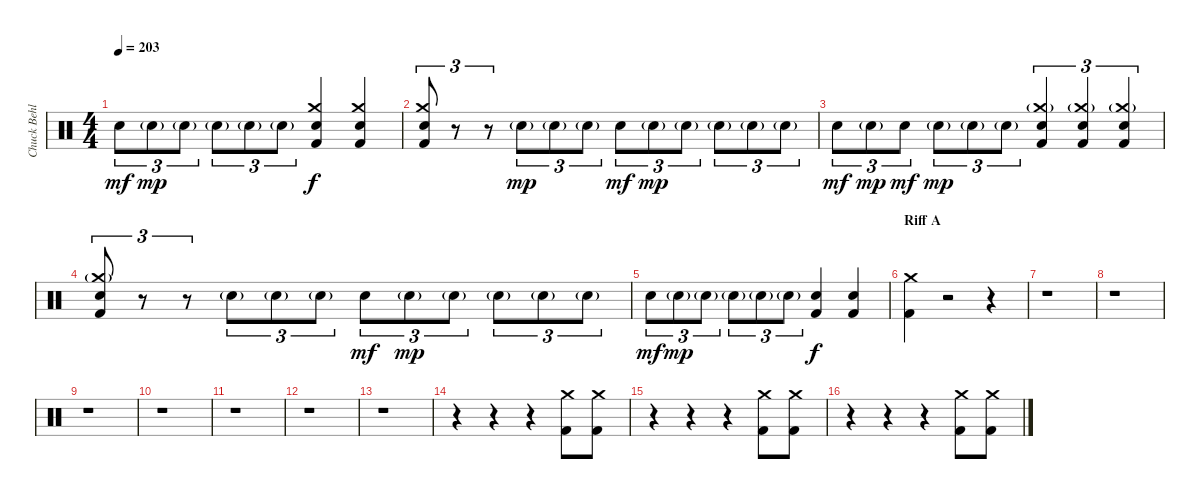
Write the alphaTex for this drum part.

\track ("Chuck Behler" "Chuck Behl") {instrument percussion}
\staff {score}
\articulation defaults
\ts (4 4)
\tempo 203
\clef neutral
\ks c "Snare (hit) 2".8{tu (3 2) dy mf} "Snare (hit) 2"{g}.8{tu (3 2) dy mp} "Snare (hit) 2"{g}.8{tu (3 2)} "Snare (hit) 2"{g}.8{tu (3 2)} "Snare (hit) 2"{g}.8{tu (3 2)} "Snare (hit) 2"{g}.8{tu (3 2)}
("Crash medium (hit)" "Snare (hit) 2" "Kick (hit) 2").4{dy f} ("Crash medium (hit)" "Snare (hit) 2" "Kick (hit) 2").4 |
("Crash medium (hit)" "Snare (hit) 2" "Kick (hit) 2").8{tu (3 2)} r.8{tu (3 2)} r.8{tu (3 2)} "Snare (hit) 2"{g}.8{tu (3 2) dy mp} "Snare (hit) 2"{g}.8{tu (3 2)} "Snare (hit) 2"{g}.8{tu (3 2)} "Snare (hit) 2".8{tu (3 2) dy mf} "Snare (hit) 2"{g}.8{tu (3 2) dy mp} "Snare (hit) 2"{g}.8{tu (3 2)} "Snare (hit) 2"{g}.8{tu (3 2)} "Snare (hit) 2"{g}.8{tu (3 2)} "Snare (hit) 2"{g}.8{tu (3 2)} |
"Snare (hit) 2".8{tu (3 2) dy mf} "Snare (hit) 2"{g}.8{tu (3 2) dy mp} "Snare (hit) 2".8{tu (3 2) dy mf} "Snare (hit) 2"{g}.8{tu (3 2) dy mp} "Snare (hit) 2"{g}.8{tu (3 2)} "Snare (hit) 2"{g}.8{tu (3 2)} ("Crash medium (hit)"{g} "Snare (hit) 2" "Kick (hit) 2").4{tu (3 2)} ("Crash medium (hit)"{g} "Snare (hit) 2" "Kick (hit) 2").4{tu (3 2)} ("Crash medium (hit)"{g} "Snare (hit) 2" "Kick (hit) 2").4{tu (3 2)} |
("Crash medium (hit)"{g} "Snare (hit) 2" "Kick (hit) 2").8{tu (3 2)} r.8{tu (3 2)} r.8{tu (3 2)} "Snare (hit) 2"{g}.8{tu (3 2)} "Snare (hit) 2"{g}.8{tu (3 2)} "Snare (hit) 2"{g}.8{tu (3 2)} "Snare (hit) 2".8{tu (3 2) dy mf} "Snare (hit) 2"{g}.8{tu (3 2) dy mp} "Snare (hit) 2"{g}.8{tu (3 2)} "Snare (hit) 2"{g}.8{tu (3 2)} "Snare (hit) 2"{g}.8{tu (3 2)} "Snare (hit) 2"{g}.8{tu (3 2)} |
"Snare (hit) 2".8{tu (3 2) dy mf} "Snare (hit) 2"{g}.8{tu (3 2) dy mp} "Snare (hit) 2"{g}.8{tu (3 2)} "Snare (hit) 2"{g}.8{tu (3 2)} "Snare (hit) 2"{g}.8{tu (3 2)} "Snare (hit) 2"{g}.8{tu (3 2)} ("Snare (hit) 2" "Kick (hit) 2").4{dy f} ("Snare (hit) 2" "Kick (hit) 2").4 |
\section ("" "Riff A")
("Crash medium (hit)" "Kick (hit) 2").4{volume 0} r.2 r.4 |
r.1 |
r.1 |
r.1 |
r.1 |
r.1 |
r.1 |
r.1 |
r.4{volume 16} r.4 r.4 ("Crash medium (hit)" "Kick (hit) 2").8 ("Crash medium (hit)" "Kick (hit) 2").8 |
r.4{volume 0} r.4 r.4 ("Crash medium (hit)" "Kick (hit) 2").8{volume 16} ("Crash medium (hit)" "Kick (hit) 2").8 |
r.4{volume 0} r.4 r.4 ("Crash medium (hit)" "Kick (hit) 2").8{volume 16} ("Crash medium (hit)" "Kick (hit) 2").8
